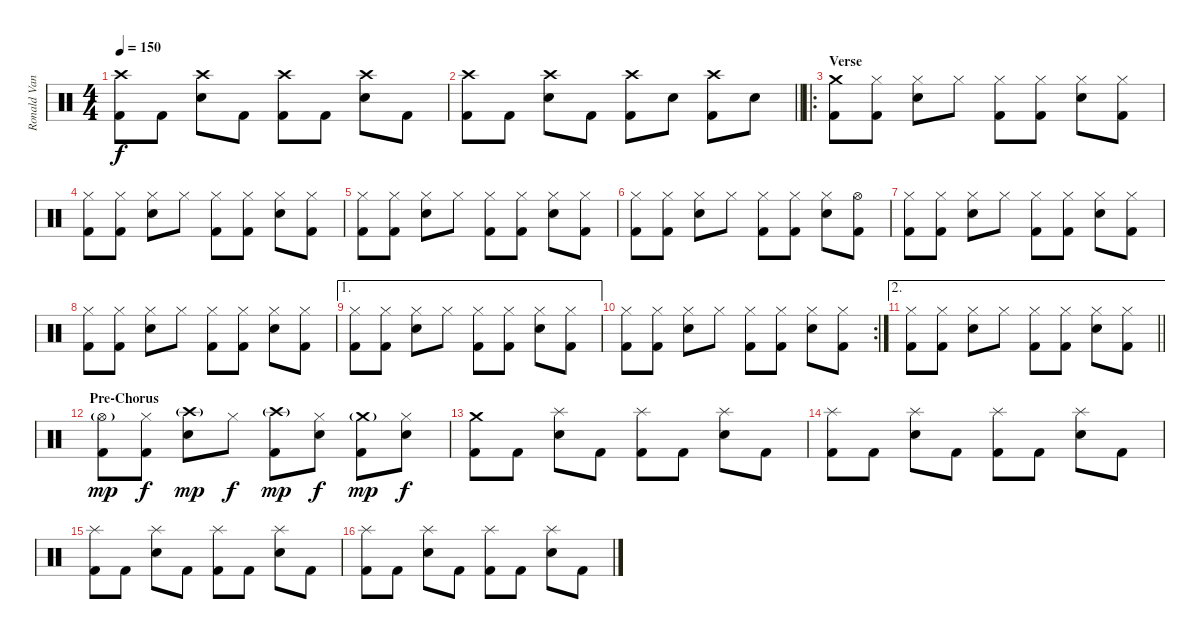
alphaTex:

\track ("Ronald Vanucci Jr (Drums)" "Ronald Van") {instrument percussion}
\staff {score}
\articulation defaults
\ts (4 4)
\tempo 150
\clef neutral
\ks c
("Crash high (hit)" "Kick (hit) 2").8{dy f} "Kick (hit) 2".8 ("Crash high (hit)" "Snare (hit) 2").8 "Kick (hit) 2".8 ("Crash high (hit)" "Kick (hit) 2").8 "Kick (hit) 2".8 ("Crash high (hit)" "Snare (hit) 2").8 "Kick (hit) 2".8 |
\barLineRight lightlight
("Crash high (hit)" "Kick (hit) 2").8 "Kick (hit) 2".8 ("Crash high (hit)" "Snare (hit) 2").8 "Kick (hit) 2".8 ("Crash high (hit)" "Kick (hit) 2").8 "Snare (hit) 2".8 ("Crash high (hit)" "Kick (hit) 2").8 "Snare (hit) 2".8 |
\ro
\section ("" "Verse")
("Crash medium (hit)" "Kick (hit) 2").8 ("Hi-Hat (closed)" "Kick (hit) 2").8 ("Hi-Hat (closed)" "Snare (hit) 2").8 "Hi-Hat (closed)".8 ("Hi-Hat (closed)" "Kick (hit) 2").8 ("Hi-Hat (closed)" "Kick (hit) 2").8 ("Hi-Hat (closed)" "Snare (hit) 2").8 ("Hi-Hat (closed)" "Kick (hit) 2").8 |
("Hi-Hat (closed)" "Kick (hit) 2").8 ("Hi-Hat (closed)" "Kick (hit) 2").8 ("Hi-Hat (closed)" "Snare (hit) 2").8 "Hi-Hat (closed)".8 ("Hi-Hat (closed)" "Kick (hit) 2").8 ("Hi-Hat (closed)" "Kick (hit) 2").8 ("Hi-Hat (closed)" "Snare (hit) 2").8 ("Hi-Hat (closed)" "Kick (hit) 2").8 |
("Hi-Hat (closed)" "Kick (hit) 2").8 ("Hi-Hat (closed)" "Kick (hit) 2").8 ("Hi-Hat (closed)" "Snare (hit) 2").8 "Hi-Hat (closed)".8 ("Hi-Hat (closed)" "Kick (hit) 2").8 ("Hi-Hat (closed)" "Kick (hit) 2").8 ("Hi-Hat (closed)" "Snare (hit) 2").8 ("Hi-Hat (closed)" "Kick (hit) 2").8 |
("Hi-Hat (closed)" "Kick (hit) 2").8 ("Hi-Hat (closed)" "Kick (hit) 2").8 ("Hi-Hat (closed)" "Snare (hit) 2").8 "Hi-Hat (closed)".8 ("Hi-Hat (closed)" "Kick (hit) 2").8 ("Hi-Hat (closed)" "Kick (hit) 2").8 ("Hi-Hat (closed)" "Snare (hit) 2").8 ("Hi-Hat (open)" "Kick (hit) 2").8 |
("Hi-Hat (closed)" "Kick (hit) 2").8 ("Hi-Hat (closed)" "Kick (hit) 2").8 ("Hi-Hat (closed)" "Snare (hit) 2").8 "Hi-Hat (closed)".8 ("Hi-Hat (closed)" "Kick (hit) 2").8 ("Hi-Hat (closed)" "Kick (hit) 2").8 ("Hi-Hat (closed)" "Snare (hit) 2").8 ("Hi-Hat (closed)" "Kick (hit) 2").8 |
("Hi-Hat (closed)" "Kick (hit) 2").8 ("Hi-Hat (closed)" "Kick (hit) 2").8 ("Hi-Hat (closed)" "Snare (hit) 2").8 "Hi-Hat (closed)".8 ("Hi-Hat (closed)" "Kick (hit) 2").8 ("Hi-Hat (closed)" "Kick (hit) 2").8 ("Hi-Hat (closed)" "Snare (hit) 2").8 ("Hi-Hat (closed)" "Kick (hit) 2").8 |
\ae 1
("Hi-Hat (closed)" "Kick (hit) 2").8 ("Hi-Hat (closed)" "Kick (hit) 2").8 ("Hi-Hat (closed)" "Snare (hit) 2").8 "Hi-Hat (closed)".8 ("Hi-Hat (closed)" "Kick (hit) 2").8 ("Hi-Hat (closed)" "Kick (hit) 2").8 ("Hi-Hat (closed)" "Snare (hit) 2").8 ("Hi-Hat (closed)" "Kick (hit) 2").8 |
\rc 2
("Hi-Hat (closed)" "Kick (hit) 2").8 ("Hi-Hat (closed)" "Kick (hit) 2").8 ("Hi-Hat (closed)" "Snare (hit) 2").8 "Hi-Hat (closed)".8 ("Hi-Hat (closed)" "Kick (hit) 2").8 ("Hi-Hat (closed)" "Kick (hit) 2").8 ("Hi-Hat (closed)" "Snare (hit) 2").8 ("Hi-Hat (closed)" "Kick (hit) 2").8 |
\ae 2
\barLineRight lightlight
("Hi-Hat (closed)" "Kick (hit) 2").8 ("Hi-Hat (closed)" "Kick (hit) 2").8 ("Hi-Hat (closed)" "Snare (hit) 2").8 "Hi-Hat (closed)".8 ("Hi-Hat (closed)" "Kick (hit) 2").8 ("Hi-Hat (closed)" "Kick (hit) 2").8 ("Hi-Hat (closed)" "Snare (hit) 2").8 ("Hi-Hat (closed)" "Kick (hit) 2").8 |
\section ("" "Pre-Chorus")
("Hi-Hat (open)"{g} "Kick (hit) 2").8{dy mp} ("Hi-Hat (closed)" "Kick (hit) 2").8{dy f} ("Crash high (hit)"{g} "Snare (hit) 2").8{dy mp} "Hi-Hat (closed)".8{dy f} ("Crash high (hit)"{g} "Kick (hit) 2").8{dy mp} ("Hi-Hat (closed)" "Snare (hit) 2").8{dy f} ("Crash medium (hit)"{g} "Kick (hit) 2").8{dy mp} ("Hi-Hat (closed)" "Snare (hit) 2").8{dy f} |
("Crash medium (hit)" "Kick (hit) 2").8 "Kick (hit) 2".8 ("Splash (hit)" "Snare (hit) 2").8 "Kick (hit) 2".8 ("Splash (hit)" "Kick (hit) 2").8 "Kick (hit) 2".8 ("Splash (hit)" "Snare (hit) 2").8 "Kick (hit) 2".8 |
("Splash (hit)" "Kick (hit) 2").8 "Kick (hit) 2".8 ("Splash (hit)" "Snare (hit) 2").8 "Kick (hit) 2".8 ("Splash (hit)" "Kick (hit) 2").8 "Kick (hit) 2".8 ("Splash (hit)" "Snare (hit) 2").8 "Kick (hit) 2".8 |
("Splash (hit)" "Kick (hit) 2").8 "Kick (hit) 2".8 ("Splash (hit)" "Snare (hit) 2").8 "Kick (hit) 2".8 ("Splash (hit)" "Kick (hit) 2").8 "Kick (hit) 2".8 ("Splash (hit)" "Snare (hit) 2").8 "Kick (hit) 2".8 |
("Splash (hit)" "Kick (hit) 2").8 "Kick (hit) 2".8 ("Splash (hit)" "Snare (hit) 2").8 "Kick (hit) 2".8 ("Splash (hit)" "Kick (hit) 2").8 "Kick (hit) 2".8 ("Splash (hit)" "Snare (hit) 2").8 "Kick (hit) 2".8
